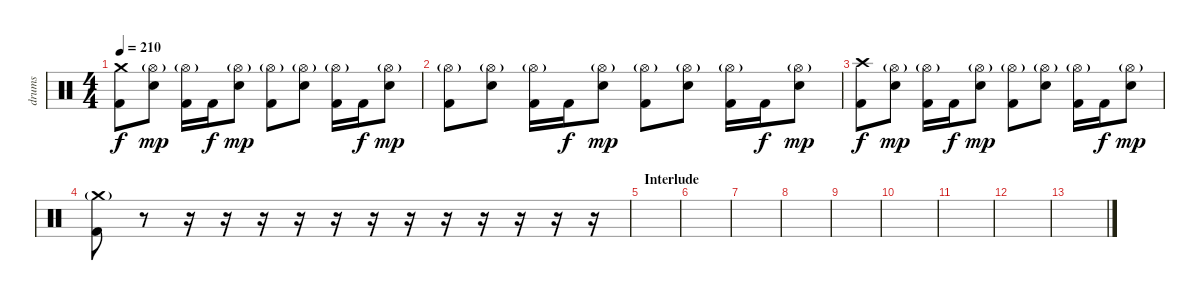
\track ("drums" "drums") {instrument percussion}
\staff {score}
\articulation defaults
\ts (4 4)
\tempo 210
\clef neutral
\ks c
("Crash medium (hit)" "Kick (hit) 2").8{dy f} ("Hi-Hat (open)"{g} "Electric Snare (hit)").8{dy mp} ("Hi-Hat (open)"{g} "Kick (hit) 2").16 "Kick (hit) 2".16{dy f} ("Hi-Hat (open)"{g} "Electric Snare (hit)").8{dy mp} ("Hi-Hat (open)"{g} "Kick (hit) 2").8 ("Hi-Hat (open)"{g} "Electric Snare (hit)").8 ("Hi-Hat (open)"{g} "Kick (hit) 2").16 "Kick (hit) 2".16{dy f} ("Hi-Hat (open)"{g} "Electric Snare (hit)").8{dy mp} |
("Hi-Hat (open)"{g} "Kick (hit) 2").8 ("Hi-Hat (open)"{g} "Electric Snare (hit)").8 ("Hi-Hat (open)"{g} "Kick (hit) 2").16 "Kick (hit) 2".16{dy f} ("Hi-Hat (open)"{g} "Electric Snare (hit)").8{dy mp} ("Hi-Hat (open)"{g} "Kick (hit) 2").8 ("Hi-Hat (open)"{g} "Electric Snare (hit)").8 ("Hi-Hat (open)"{g} "Kick (hit) 2").16 "Kick (hit) 2".16{dy f} ("Hi-Hat (open)"{g} "Electric Snare (hit)").8{dy mp} |
("Crash high (hit)" "Kick (hit) 2").8{dy f} ("Hi-Hat (open)"{g} "Electric Snare (hit)").8{dy mp} ("Hi-Hat (open)"{g} "Kick (hit) 2").16 "Kick (hit) 2".16{dy f} ("Hi-Hat (open)"{g} "Electric Snare (hit)").8{dy mp} ("Hi-Hat (open)"{g} "Kick (hit) 2").8 ("Hi-Hat (open)"{g} "Electric Snare (hit)").8 ("Hi-Hat (open)"{g} "Kick (hit) 2").16 "Kick (hit) 2".16{dy f} ("Hi-Hat (open)"{g} "Electric Snare (hit)").8{dy mp} |
("Crash medium (hit)"{g} "Kick (hit) 2").8 r.8 r.16 r.16 r.16 r.16 r.16 r.16 r.16 r.16 r.16 r.16 r.16 r.16 |
\section ("" "Interlude")
|
|
|
|
|
|
|
|
\section ("" "")
